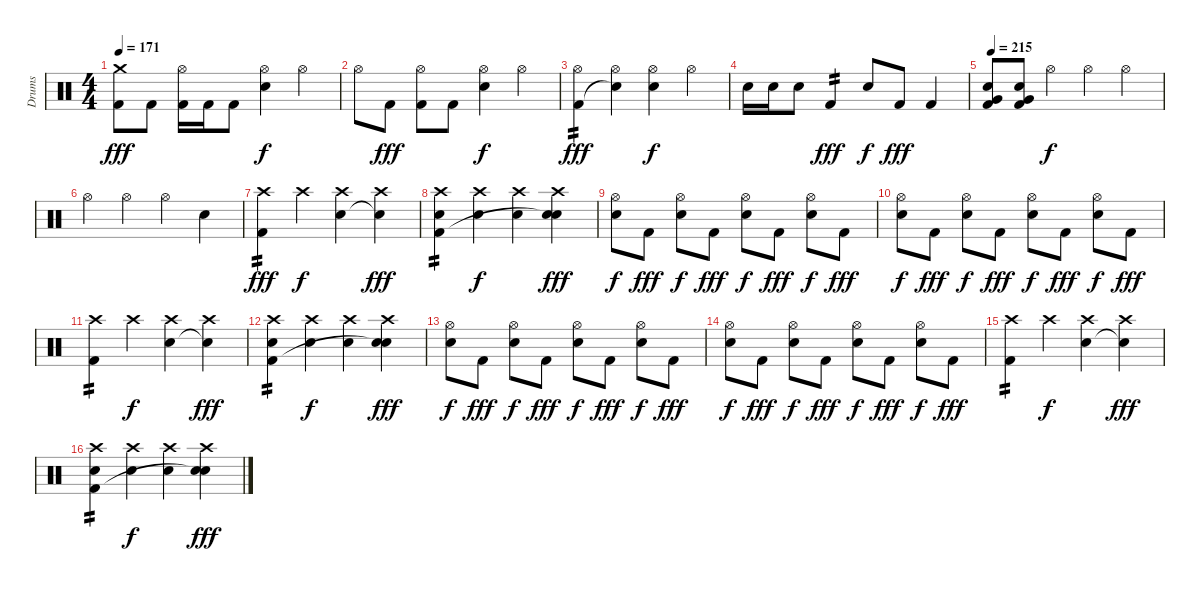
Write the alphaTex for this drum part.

\track ("Drums" "Drums") {instrument percussion}
\staff {score}
\articulation defaults
\ts (4 4)
\tempo 171
\clef neutral
\ks c
("Crash medium (hit)" "Kick (hit) 2").8{dy fff} "Kick (hit) 2".8 ("Hi-Hat (open)" "Kick (hit) 2").16 "Kick (hit) 2".16 "Kick (hit) 2".8 ("Hi-Hat (open)" "Electric Snare (hit)").4{dy f} "Hi-Hat (open)".4 |
"Hi-Hat (open)".8 "Kick (hit) 2".8{dy fff} ("Hi-Hat (open)" "Kick (hit) 2").8 "Kick (hit) 2".8 ("Hi-Hat (open)" "Electric Snare (hit)").4{dy f} "Hi-Hat (open)".4 |
("Hi-Hat (open)" "Kick (hit) 2").4{tp 2 dy fff} ("Hi-Hat (open)" "Snare (hit)"{t}).4 ("Hi-Hat (open)" "Electric Snare (hit)").4{dy f} "Hi-Hat (open)".4 |
"Electric Snare (hit)".16 "Electric Snare (hit)".16 "Electric Snare (hit)".8 "Kick (hit) 2".4{tp 2 dy fff} "Electric Snare (hit)".8{dy f} "Kick (hit) 2".8{dy fff} "Kick (hit) 2".4 |
\tempo 215
("Very Low Tom (hit)" "Electric Snare (hit)" "Kick (hit) 2").8 ("Very Low Tom (hit)" "Electric Snare (hit)" "Kick (hit) 2").8 "Hi-Hat (open)".4{dy f} "Hi-Hat (open)".4 "Hi-Hat (open)".4 |
"Hi-Hat (open)".4 "Hi-Hat (open)".4 "Hi-Hat (open)".4 "Electric Snare (hit)".4 |
("Crash high (hit)" "Kick (hit) 2").4{tp 2 dy fff} "Crash high (hit)".4{dy f} ("Crash high (hit)" "Electric Snare (hit)").4 ("Crash high (hit)" "Snare (hit)"{t}).4{dy fff} |
("Crash high (hit)" "Electric Snare (hit)" "Kick (hit) 2").4{tp 2} ("Crash high (hit)" "Electric Snare (hit)").4{dy f} ("Crash high (hit)" "Electric Snare (hit)").4 ("Crash high (hit)" "Electric Snare (hit)" "Snare (hit)"{t}).4{dy fff} |
("Hi-Hat (open)" "Electric Snare (hit)").8{dy f} "Kick (hit) 2".8{dy fff} ("Hi-Hat (open)" "Electric Snare (hit)").8{dy f} "Kick (hit) 2".8{dy fff} ("Hi-Hat (open)" "Electric Snare (hit)").8{dy f} "Kick (hit) 2".8{dy fff} ("Hi-Hat (open)" "Electric Snare (hit)").8{dy f} "Kick (hit) 2".8{dy fff} |
("Hi-Hat (open)" "Electric Snare (hit)").8{dy f} "Kick (hit) 2".8{dy fff} ("Hi-Hat (open)" "Electric Snare (hit)").8{dy f} "Kick (hit) 2".8{dy fff} ("Hi-Hat (open)" "Electric Snare (hit)").8{dy f} "Kick (hit) 2".8{dy fff} ("Hi-Hat (open)" "Electric Snare (hit)").8{dy f} "Kick (hit) 2".8{dy fff} |
("Crash high (hit)" "Kick (hit) 2").4{tp 2} "Crash high (hit)".4{dy f} ("Crash high (hit)" "Electric Snare (hit)").4 ("Crash high (hit)" "Snare (hit)"{t}).4{dy fff} |
("Crash high (hit)" "Electric Snare (hit)" "Kick (hit) 2").4{tp 2} ("Crash high (hit)" "Electric Snare (hit)").4{dy f} ("Crash high (hit)" "Electric Snare (hit)").4 ("Crash high (hit)" "Electric Snare (hit)" "Snare (hit)"{t}).4{dy fff} |
("Hi-Hat (open)" "Electric Snare (hit)").8{dy f} "Kick (hit) 2".8{dy fff} ("Hi-Hat (open)" "Electric Snare (hit)").8{dy f} "Kick (hit) 2".8{dy fff} ("Hi-Hat (open)" "Electric Snare (hit)").8{dy f} "Kick (hit) 2".8{dy fff} ("Hi-Hat (open)" "Electric Snare (hit)").8{dy f} "Kick (hit) 2".8{dy fff} |
("Hi-Hat (open)" "Electric Snare (hit)").8{dy f} "Kick (hit) 2".8{dy fff} ("Hi-Hat (open)" "Electric Snare (hit)").8{dy f} "Kick (hit) 2".8{dy fff} ("Hi-Hat (open)" "Electric Snare (hit)").8{dy f} "Kick (hit) 2".8{dy fff} ("Hi-Hat (open)" "Electric Snare (hit)").8{dy f} "Kick (hit) 2".8{dy fff} |
("Crash high (hit)" "Kick (hit) 2").4{tp 2} "Crash high (hit)".4{dy f} ("Crash high (hit)" "Electric Snare (hit)").4 ("Crash high (hit)" "Snare (hit)"{t}).4{dy fff} |
("Crash high (hit)" "Electric Snare (hit)" "Kick (hit) 2").4{tp 2} ("Crash high (hit)" "Electric Snare (hit)").4{dy f} ("Crash high (hit)" "Electric Snare (hit)").4 ("Crash high (hit)" "Electric Snare (hit)" "Snare (hit)"{t}).4{dy fff}
